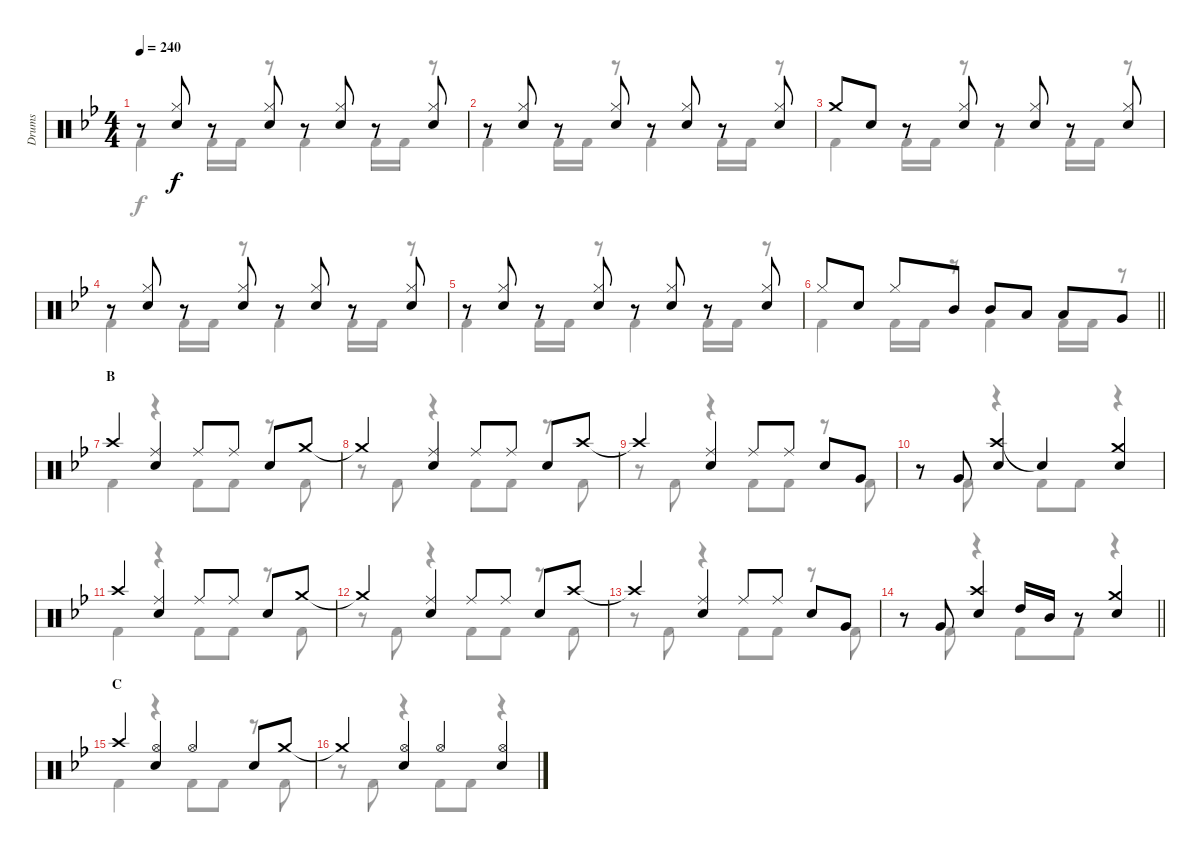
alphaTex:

\track ("Drums" "Drums") {instrument percussion}
\staff {score}
\articulation defaults
\voice
\ts (4 4)
\tempo 240
\clef neutral
\ks bb
r.8{dy f} ("Hi-Hat (closed)" "Snare (hit) 2").8 r.8 ("Hi-Hat (closed)" "Snare (hit) 2").8 r.8 ("Hi-Hat (closed)" "Snare (hit) 2").8 r.8 ("Hi-Hat (closed)" "Snare (hit) 2").8 |
r.8 ("Hi-Hat (closed)" "Snare (hit) 2").8 r.8 ("Hi-Hat (closed)" "Snare (hit) 2").8 r.8 ("Hi-Hat (closed)" "Snare (hit) 2").8 r.8 ("Hi-Hat (closed)" "Snare (hit) 2").8 |
"Crash medium (hit)".8 "Snare (hit) 2".8 r.8 ("Hi-Hat (closed)" "Snare (hit) 2").8 r.8 ("Hi-Hat (closed)" "Snare (hit) 2").8 r.8 ("Hi-Hat (closed)" "Snare (hit) 2").8 |
r.8 ("Hi-Hat (closed)" "Snare (hit) 2").8 r.8 ("Hi-Hat (closed)" "Snare (hit) 2").8 r.8 ("Hi-Hat (closed)" "Snare (hit) 2").8 r.8 ("Hi-Hat (closed)" "Snare (hit) 2").8 |
r.8 ("Hi-Hat (closed)" "Snare (hit) 2").8 r.8 ("Hi-Hat (closed)" "Snare (hit) 2").8 r.8 ("Hi-Hat (closed)" "Snare (hit) 2").8 r.8 ("Hi-Hat (closed)" "Snare (hit) 2").8 |
\barLineRight lightlight "Hi-Hat (closed)".8 "Snare (hit) 2".8 "Hi-Hat (closed)".8 "Mid Tom (hit)".8 "Mid Tom (hit)".8 "Low Tom (hit)".8 "Low Tom (hit)".8 "Very Low Tom (hit)".8
|
\section ("" "B")
"Crash high (hit)".4 ("Ride (middle)" "Snare (hit) 2").4 "Ride (middle)".8 "Ride (middle)".8 "Snare (hit) 2".8 "Crash medium (hit)".8 |
"Crash medium (hit)"{t}.4 ("Ride (middle)" "Snare (hit) 2").4 "Ride (middle)".8 "Ride (middle)".8 "Snare (hit) 2".8 "Crash high (hit)".8 |
"Crash high (hit)"{t}.4 ("Ride (middle)" "Snare (hit) 2").4 "Ride (middle)".8 "Ride (middle)".8 "Snare (hit) 2".8 "Very Low Tom (hit)".8 |
r.8 "Very Low Tom (hit)".8 ("Crash high (hit)" "Snare (hit) 2").4 "Snare (hit)"{t}.4 ("Crash medium (hit)" "Snare (hit) 2").4 |
"Crash high (hit)".4 ("Ride (middle)" "Snare (hit) 2").4 "Ride (middle)".8 "Ride (middle)".8 "Snare (hit) 2".8 "Crash medium (hit)".8 |
"Crash medium (hit)"{t}.4 ("Ride (middle)" "Snare (hit) 2").4 "Ride (middle)".8 "Ride (middle)".8 "Snare (hit) 2".8 "Crash high (hit)".8 |
"Crash high (hit)"{t}.4 ("Ride (middle)" "Snare (hit) 2").4 "Ride (middle)".8 "Ride (middle)".8 "Snare (hit) 2".8 "Very Low Tom (hit)".8 |
\barLineRight lightlight
r.8 "Very Low Tom (hit)".8 ("Crash high (hit)" "Snare (hit) 2").4 "High Tom (hit)".16 "Mid Tom (hit)".16 r.8 ("Crash medium (hit)" "Snare (hit) 2").4 |
\section ("" "C")
"Crash high (hit)".4 ("Hi-Hat (open)" "Snare (hit) 2").4 "Hi-Hat (open)".4 "Snare (hit) 2".8 "Crash medium (hit)".8 |
"Crash medium (hit)"{t}.4 ("Hi-Hat (open)" "Snare (hit) 2").4 "Hi-Hat (open)".4 ("Hi-Hat (open)" "Snare (hit) 2").4
\voice
\clef neutral
\ottava regular
\simile none
\ks bb "Kick (hit) 2".4{dy f} "Kick (hit) 2".16 "Kick (hit) 2".16
r.8 "Kick (hit) 2".4 "Kick (hit) 2".16 "Kick (hit) 2".16 r.8 |
"Kick (hit) 2".4 "Kick (hit) 2".16 "Kick (hit) 2".16 r.8 "Kick (hit) 2".4 "Kick (hit) 2".16 "Kick (hit) 2".16 r.8 |
"Kick (hit) 2".4 "Kick (hit) 2".16 "Kick (hit) 2".16 r.8 "Kick (hit) 2".4 "Kick (hit) 2".16 "Kick (hit) 2".16 r.8 |
"Kick (hit) 2".4 "Kick (hit) 2".16 "Kick (hit) 2".16 r.8 "Kick (hit) 2".4 "Kick (hit) 2".16 "Kick (hit) 2".16 r.8 |
"Kick (hit) 2".4 "Kick (hit) 2".16 "Kick (hit) 2".16 r.8 "Kick (hit) 2".4 "Kick (hit) 2".16 "Kick (hit) 2".16 r.8 |
\barLineRight lightlight "Kick (hit) 2".4 "Kick (hit) 2".16 "Kick (hit) 2".16
r.8 "Kick (hit) 2".4 "Kick (hit) 2".16 "Kick (hit) 2".16 r.8 |
"Kick (hit) 2".4 r.4 "Kick (hit) 2".8 "Kick (hit) 2".8 r.8 "Kick (hit) 2".8 |
r.8 "Kick (hit) 2".8 r.4 "Kick (hit) 2".8 "Kick (hit) 2".8 r.8 "Kick (hit) 2".8 |
r.8 "Kick (hit) 2".8 r.4 "Kick (hit) 2".8 "Kick (hit) 2".8 r.8 "Kick (hit) 2".8 |
r.8 "Kick (hit) 2".8 r.4 "Kick (hit) 2".8 "Kick (hit) 2".8 r.4 |
"Kick (hit) 2".4 r.4 "Kick (hit) 2".8 "Kick (hit) 2".8 r.8 "Kick (hit) 2".8 |
r.8 "Kick (hit) 2".8 r.4 "Kick (hit) 2".8 "Kick (hit) 2".8 r.8 "Kick (hit) 2".8 |
r.8 "Kick (hit) 2".8 r.4 "Kick (hit) 2".8 "Kick (hit) 2".8 r.8 "Kick (hit) 2".8 |
\barLineRight lightlight
r.8 "Kick (hit) 2".8 r.4 "Kick (hit) 2".8 "Kick (hit) 2".8 r.4 |
"Kick (hit) 2".4 r.4 "Kick (hit) 2".8 "Kick (hit) 2".8 r.8 "Kick (hit) 2".8 |
r.8 "Kick (hit) 2".8 r.4 "Kick (hit) 2".8 "Kick (hit) 2".8 r.4
